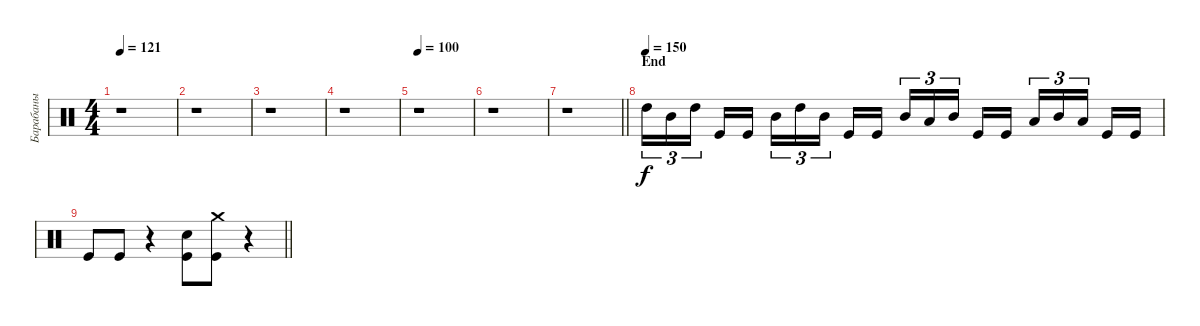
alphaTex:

\track ("Барабаны" "Барабаны") {instrument percussion}
\staff {score}
\articulation defaults
\ts (4 4)
\tempo 121
\clef neutral
\ks c
r.1{dy f} |
r.1 |
r.1 |
r.1 |
\tempo 100
r.1 |
r.1 |
\barLineRight lightlight
r.1 |
\section ("" "End")
\tempo (150)
"High Tom (hit)".16{tu (3 2)} "Mid Tom (hit)".16{tu (3 2)} "High Tom (hit)".16{tu (3 2) beam splitsecondary} "Kick (hit)".16 "Kick (hit)".16 "Mid Tom (hit)".16{tu (3 2)} "High Tom (hit)".16{tu (3 2)} "Mid Tom (hit)".16{tu (3 2) beam splitsecondary} "Kick (hit)".16 "Kick (hit)".16 "Mid Tom (hit)".16{tu (3 2)} "Low Tom (hit)".16{tu (3 2)} "Mid Tom (hit)".16{tu (3 2) beam splitsecondary} "Kick (hit)".16 "Kick (hit)".16 "Low Tom (hit)".16{tu (3 2)} "Mid Tom (hit)".16{tu (3 2)} "Low Tom (hit)".16{tu (3 2) beam splitsecondary} "Kick (hit)".16 "Kick (hit)".16 |
\barLineRight lightlight "Kick (hit)".8 "Kick (hit)".8
r.4 ("Snare (hit) 2" "Kick (hit)").8 ("Crash medium (hit)" "Kick (hit)").8 r.4
